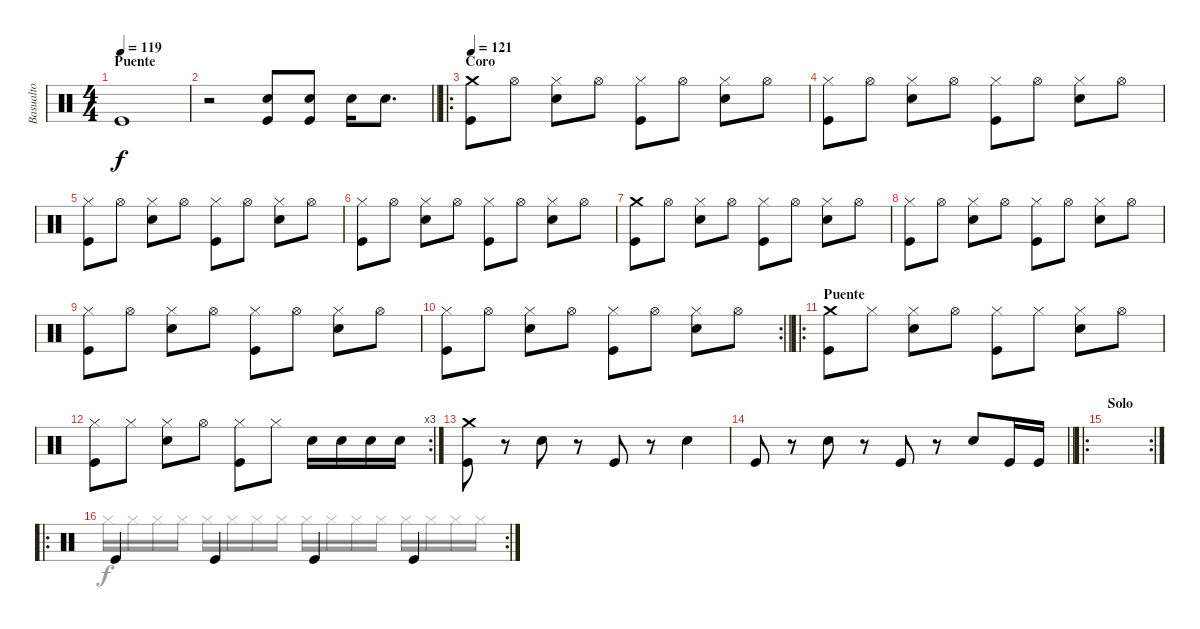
\track ("Basualto" "Basualto") {instrument percussion}
\staff {score}
\articulation defaults
\voice
\ts (4 4)
\section ("" "Puente")
\tempo 119
\clef neutral
\ks c "Kick (hit)".1{dy f}
|
\barLineRight lightlight
r.2 ("Snare (hit) 2" "Kick (hit)").8 ("Snare (hit) 2" "Kick (hit)").8 "Snare (hit) 2".16 "Snare (hit) 2".8{d} |
\ro
\section ("" "Coro")
\tempo 121
("Crash medium (hit)" "Kick (hit)").8 "Hi-Hat (open)".8 ("Hi-Hat (closed)" "Snare (hit) 2").8 "Hi-Hat (open)".8 ("Hi-Hat (closed)" "Kick (hit)").8 "Hi-Hat (open)".8 ("Hi-Hat (closed)" "Snare (hit) 2").8 "Hi-Hat (open)".8 |
("Hi-Hat (closed)" "Kick (hit)").8 "Hi-Hat (open)".8 ("Hi-Hat (closed)" "Snare (hit) 2").8 "Hi-Hat (open)".8 ("Hi-Hat (closed)" "Kick (hit)").8 "Hi-Hat (open)".8 ("Hi-Hat (closed)" "Snare (hit) 2").8 "Hi-Hat (open)".8 |
("Hi-Hat (closed)" "Kick (hit)").8 "Hi-Hat (open)".8 ("Hi-Hat (closed)" "Snare (hit) 2").8 "Hi-Hat (open)".8 ("Hi-Hat (closed)" "Kick (hit)").8 "Hi-Hat (open)".8 ("Hi-Hat (closed)" "Snare (hit) 2").8 "Hi-Hat (open)".8 |
("Hi-Hat (closed)" "Kick (hit)").8 "Hi-Hat (open)".8 ("Hi-Hat (closed)" "Snare (hit) 2").8 "Hi-Hat (open)".8 ("Hi-Hat (closed)" "Kick (hit)").8 "Hi-Hat (open)".8 ("Hi-Hat (closed)" "Snare (hit) 2").8 "Hi-Hat (open)".8 |
("Crash medium (hit)" "Kick (hit)").8 "Hi-Hat (open)".8 ("Hi-Hat (closed)" "Snare (hit) 2").8 "Hi-Hat (open)".8 ("Hi-Hat (closed)" "Kick (hit)").8 "Hi-Hat (open)".8 ("Hi-Hat (closed)" "Snare (hit) 2").8 "Hi-Hat (open)".8 |
("Hi-Hat (closed)" "Kick (hit)").8 "Hi-Hat (open)".8 ("Hi-Hat (closed)" "Snare (hit) 2").8 "Hi-Hat (open)".8 ("Hi-Hat (closed)" "Kick (hit)").8 "Hi-Hat (open)".8 ("Hi-Hat (closed)" "Snare (hit) 2").8 "Hi-Hat (open)".8 |
("Hi-Hat (closed)" "Kick (hit)").8 "Hi-Hat (open)".8 ("Hi-Hat (closed)" "Snare (hit) 2").8 "Hi-Hat (open)".8 ("Hi-Hat (closed)" "Kick (hit)").8 "Hi-Hat (open)".8 ("Hi-Hat (closed)" "Snare (hit) 2").8 "Hi-Hat (open)".8 |
\rc 2
\barLineRight lightlight
("Hi-Hat (closed)" "Kick (hit)").8 "Hi-Hat (open)".8 ("Hi-Hat (closed)" "Snare (hit) 2").8 "Hi-Hat (open)".8 ("Hi-Hat (closed)" "Kick (hit)").8 "Hi-Hat (open)".8 ("Hi-Hat (closed)" "Snare (hit) 2").8 "Hi-Hat (open)".8 |
\ro
\section ("" "Puente")
("Crash medium (hit)" "Kick (hit)").8 "Hi-Hat (closed)".8 ("Hi-Hat (closed)" "Snare (hit) 2").8 "Hi-Hat (open)".8 ("Hi-Hat (closed)" "Kick (hit)").8 "Hi-Hat (closed)".8 ("Hi-Hat (closed)" "Snare (hit) 2").8 "Hi-Hat (open)".8 |
\rc 3
("Hi-Hat (closed)" "Kick (hit)").8 "Hi-Hat (closed)".8 ("Hi-Hat (closed)" "Snare (hit) 2").8 "Hi-Hat (open)".8 ("Hi-Hat (closed)" "Kick (hit)").8 "Hi-Hat (closed)".8 "Snare (hit) 2".16 "Snare (hit) 2".16 "Snare (hit) 2".16 "Snare (hit) 2".16 |
("Crash medium (hit)" "Kick (hit)").8 r.8 "Snare (hit) 2".8 r.8 "Kick (hit)".8 r.8 "Snare (hit) 2".4 |
\barLineRight lightlight "Kick (hit)".8
r.8 "Snare (hit) 2".8 r.8 "Kick (hit)".8 r.8 "Snare (hit) 2".8 "Kick (hit)".16 "Kick (hit)".16 |
\ro
\rc 2
\section ("" "Solo")
|
\ro
\rc 2 "Kick (hit)".4 "Kick (hit)".4 "Kick (hit)".4 "Kick (hit)".4
\voice
\clef neutral
\ottava regular
\simile none
\ks c
|
\barLineRight lightlight
|
|
|
|
|
|
|
|
\barLineRight lightlight
|
|
|
|
\barLineRight lightlight
|
|
"Hi-Hat (closed)".16 "Hi-Hat (closed)".16 "Hi-Hat (closed)".16 "Hi-Hat (closed)".16 "Hi-Hat (closed)".16 "Hi-Hat (closed)".16 "Hi-Hat (closed)".16 "Hi-Hat (closed)".16 "Hi-Hat (closed)".16 "Hi-Hat (closed)".16 "Hi-Hat (closed)".16 "Hi-Hat (closed)".16 "Hi-Hat (closed)".16 "Hi-Hat (closed)".16 "Hi-Hat (closed)".16 "Hi-Hat (closed)".16
